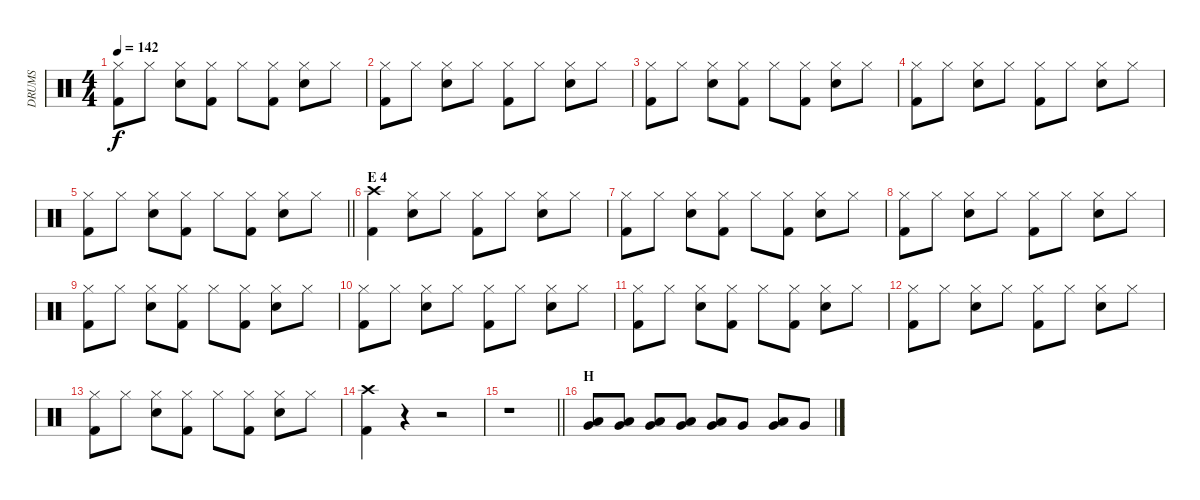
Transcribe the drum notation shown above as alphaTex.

\track ("DRUMS" "DRUMS") {instrument percussion}
\staff {score}
\articulation defaults
\ts (4 4)
\tempo 142
\clef neutral
\ks c
("Hi-Hat (closed)" "Kick (hit) 2").8{dy f} "Hi-Hat (closed)".8 ("Hi-Hat (closed)" "Snare (hit) 2").8 ("Hi-Hat (closed)" "Kick (hit) 2").8 "Hi-Hat (closed)".8 ("Hi-Hat (closed)" "Kick (hit) 2").8 ("Hi-Hat (closed)" "Snare (hit) 2").8 "Hi-Hat (closed)".8 |
("Hi-Hat (closed)" "Kick (hit) 2").8 "Hi-Hat (closed)".8 ("Hi-Hat (closed)" "Snare (hit) 2").8 "Hi-Hat (closed)".8 ("Hi-Hat (closed)" "Kick (hit) 2").8 "Hi-Hat (closed)".8 ("Hi-Hat (closed)" "Snare (hit) 2").8 "Hi-Hat (closed)".8 |
("Hi-Hat (closed)" "Kick (hit) 2").8 "Hi-Hat (closed)".8 ("Hi-Hat (closed)" "Snare (hit) 2").8 ("Hi-Hat (closed)" "Kick (hit) 2").8 "Hi-Hat (closed)".8 ("Hi-Hat (closed)" "Kick (hit) 2").8 ("Hi-Hat (closed)" "Snare (hit) 2").8 "Hi-Hat (closed)".8 |
("Hi-Hat (closed)" "Kick (hit) 2").8 "Hi-Hat (closed)".8 ("Hi-Hat (closed)" "Snare (hit) 2").8 "Hi-Hat (closed)".8 ("Hi-Hat (closed)" "Kick (hit) 2").8 "Hi-Hat (closed)".8 ("Hi-Hat (closed)" "Snare (hit) 2").8 "Hi-Hat (closed)".8 |
\barLineRight lightlight
("Hi-Hat (closed)" "Kick (hit) 2").8 "Hi-Hat (closed)".8 ("Hi-Hat (closed)" "Snare (hit) 2").8 ("Hi-Hat (closed)" "Kick (hit) 2").8 "Hi-Hat (closed)".8 ("Hi-Hat (closed)" "Kick (hit) 2").8 ("Hi-Hat (closed)" "Snare (hit) 2").8 "Hi-Hat (closed)".8 |
\section ("" "E 4")
("Crash high (hit)" "Kick (hit) 2").4 ("Hi-Hat (closed)" "Snare (hit) 2").8 "Hi-Hat (closed)".8 ("Hi-Hat (closed)" "Kick (hit) 2").8 "Hi-Hat (closed)".8 ("Hi-Hat (closed)" "Snare (hit) 2").8 "Hi-Hat (closed)".8 |
("Hi-Hat (closed)" "Kick (hit) 2").8 "Hi-Hat (closed)".8 ("Hi-Hat (closed)" "Snare (hit) 2").8 ("Hi-Hat (closed)" "Kick (hit) 2").8 "Hi-Hat (closed)".8 ("Hi-Hat (closed)" "Kick (hit) 2").8 ("Hi-Hat (closed)" "Snare (hit) 2").8 "Hi-Hat (closed)".8 |
("Hi-Hat (closed)" "Kick (hit) 2").8 "Hi-Hat (closed)".8 ("Hi-Hat (closed)" "Snare (hit) 2").8 "Hi-Hat (closed)".8 ("Hi-Hat (closed)" "Kick (hit) 2").8 "Hi-Hat (closed)".8 ("Hi-Hat (closed)" "Snare (hit) 2").8 "Hi-Hat (closed)".8 |
("Hi-Hat (closed)" "Kick (hit) 2").8 "Hi-Hat (closed)".8 ("Hi-Hat (closed)" "Snare (hit) 2").8 ("Hi-Hat (closed)" "Kick (hit) 2").8 "Hi-Hat (closed)".8 ("Hi-Hat (closed)" "Kick (hit) 2").8 ("Hi-Hat (closed)" "Snare (hit) 2").8 "Hi-Hat (closed)".8 |
("Hi-Hat (closed)" "Kick (hit) 2").8 "Hi-Hat (closed)".8 ("Hi-Hat (closed)" "Snare (hit) 2").8 "Hi-Hat (closed)".8 ("Hi-Hat (closed)" "Kick (hit) 2").8 "Hi-Hat (closed)".8 ("Hi-Hat (closed)" "Snare (hit) 2").8 "Hi-Hat (closed)".8 |
("Hi-Hat (closed)" "Kick (hit) 2").8 "Hi-Hat (closed)".8 ("Hi-Hat (closed)" "Snare (hit) 2").8 ("Hi-Hat (closed)" "Kick (hit) 2").8 "Hi-Hat (closed)".8 ("Hi-Hat (closed)" "Kick (hit) 2").8 ("Hi-Hat (closed)" "Snare (hit) 2").8 "Hi-Hat (closed)".8 |
("Hi-Hat (closed)" "Kick (hit) 2").8 "Hi-Hat (closed)".8 ("Hi-Hat (closed)" "Snare (hit) 2").8 "Hi-Hat (closed)".8 ("Hi-Hat (closed)" "Kick (hit) 2").8 "Hi-Hat (closed)".8 ("Hi-Hat (closed)" "Snare (hit) 2").8 "Hi-Hat (closed)".8 |
("Hi-Hat (closed)" "Kick (hit) 2").8 "Hi-Hat (closed)".8 ("Hi-Hat (closed)" "Snare (hit) 2").8 ("Hi-Hat (closed)" "Kick (hit) 2").8 "Hi-Hat (closed)".8 ("Hi-Hat (closed)" "Kick (hit) 2").8 ("Hi-Hat (closed)" "Snare (hit) 2").8 "Hi-Hat (closed)".8 |
("Crash high (hit)" "Kick (hit) 2").4 r.4 r.2 |
\barLineRight lightlight
r.1 |
\section ("" "H")
("Low Tom (hit)" "Very Low Tom (hit)").8 ("Low Tom (hit)" "Very Low Tom (hit)").8 ("Low Tom (hit)" "Very Low Tom (hit)").8 ("Low Tom (hit)" "Very Low Tom (hit)").8 ("Low Tom (hit)" "Very Low Tom (hit)").8 "Very Low Tom (hit)".8 ("Low Tom (hit)" "Very Low Tom (hit)").8 "Very Low Tom (hit)".8
